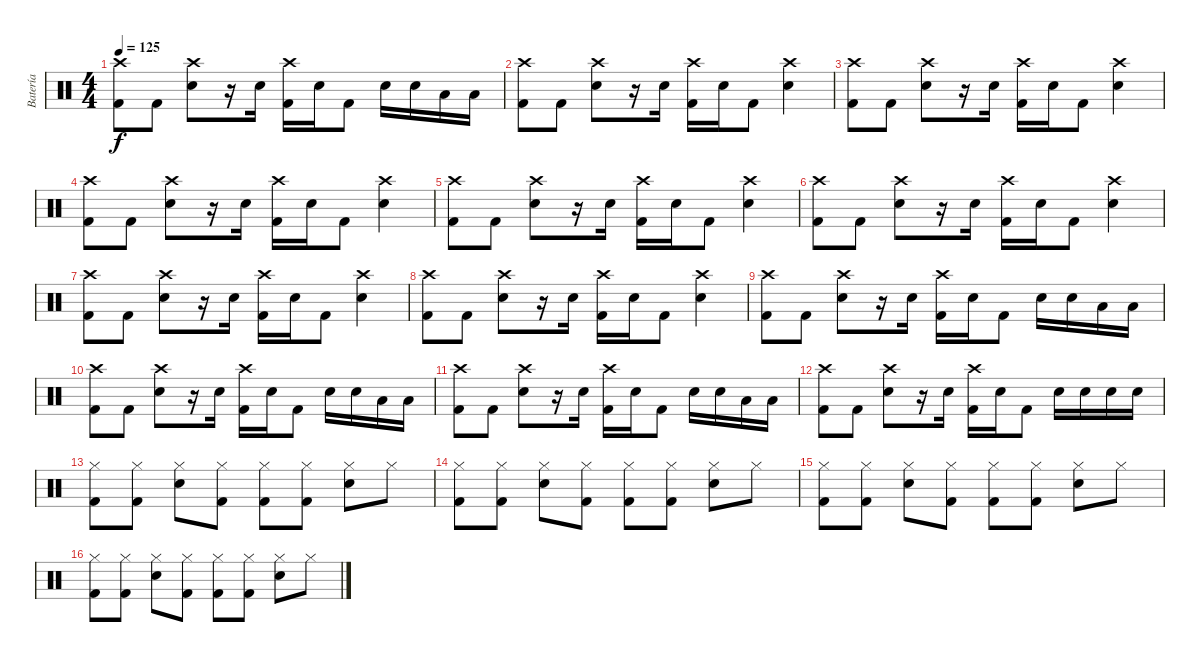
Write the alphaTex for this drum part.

\track ("Batería" "Batería") {instrument percussion}
\staff {score}
\articulation defaults
\ts (4 4)
\tempo 125
\clef neutral
\ks c
("Crash high (hit)" "Kick (hit) 2").8{dy f} "Kick (hit) 2".8 ("Crash high (hit)" "Snare (hit) 2").8 r.16 "Snare (hit) 2".16 ("Crash high (hit)" "Kick (hit) 2").16 "Snare (hit) 2".16 "Kick (hit) 2".8 "Snare (hit) 2".16 "Snare (hit) 2".16 "Low Tom (hit)".16 "Low Tom (hit)".16 |
("Crash high (hit)" "Kick (hit) 2").8 "Kick (hit) 2".8 ("Crash high (hit)" "Snare (hit) 2").8 r.16 "Snare (hit) 2".16 ("Crash high (hit)" "Kick (hit) 2").16 "Snare (hit) 2".16 "Kick (hit) 2".8 ("Crash high (hit)" "Snare (hit) 2").4 |
("Crash high (hit)" "Kick (hit) 2").8 "Kick (hit) 2".8 ("Crash high (hit)" "Snare (hit) 2").8 r.16 "Snare (hit) 2".16 ("Crash high (hit)" "Kick (hit) 2").16 "Snare (hit) 2".16 "Kick (hit) 2".8 ("Crash high (hit)" "Snare (hit) 2").4 |
("Crash high (hit)" "Kick (hit) 2").8 "Kick (hit) 2".8 ("Crash high (hit)" "Snare (hit) 2").8 r.16 "Snare (hit) 2".16 ("Crash high (hit)" "Kick (hit) 2").16 "Snare (hit) 2".16 "Kick (hit) 2".8 ("Crash high (hit)" "Snare (hit) 2").4 |
("Crash high (hit)" "Kick (hit) 2").8 "Kick (hit) 2".8 ("Crash high (hit)" "Snare (hit) 2").8 r.16 "Snare (hit) 2".16 ("Crash high (hit)" "Kick (hit) 2").16 "Snare (hit) 2".16 "Kick (hit) 2".8 ("Crash high (hit)" "Snare (hit) 2").4 |
("Crash high (hit)" "Kick (hit) 2").8 "Kick (hit) 2".8 ("Crash high (hit)" "Snare (hit) 2").8 r.16 "Snare (hit) 2".16 ("Crash high (hit)" "Kick (hit) 2").16 "Snare (hit) 2".16 "Kick (hit) 2".8 ("Crash high (hit)" "Snare (hit) 2").4 |
("Crash high (hit)" "Kick (hit) 2").8 "Kick (hit) 2".8 ("Crash high (hit)" "Snare (hit) 2").8 r.16 "Snare (hit) 2".16 ("Crash high (hit)" "Kick (hit) 2").16 "Snare (hit) 2".16 "Kick (hit) 2".8 ("Crash high (hit)" "Snare (hit) 2").4 |
("Crash high (hit)" "Kick (hit) 2").8 "Kick (hit) 2".8 ("Crash high (hit)" "Snare (hit) 2").8 r.16 "Snare (hit) 2".16 ("Crash high (hit)" "Kick (hit) 2").16 "Snare (hit) 2".16 "Kick (hit) 2".8 ("Crash high (hit)" "Snare (hit) 2").4 |
("Crash high (hit)" "Kick (hit) 2").8 "Kick (hit) 2".8 ("Crash high (hit)" "Snare (hit) 2").8 r.16 "Snare (hit) 2".16 ("Crash high (hit)" "Kick (hit) 2").16 "Snare (hit) 2".16 "Kick (hit) 2".8 "Snare (hit) 2".16 "Snare (hit) 2".16 "Low Tom (hit)".16 "Low Tom (hit)".16 |
("Crash high (hit)" "Kick (hit) 2").8 "Kick (hit) 2".8 ("Crash high (hit)" "Snare (hit) 2").8 r.16 "Snare (hit) 2".16 ("Crash high (hit)" "Kick (hit) 2").16 "Snare (hit) 2".16 "Kick (hit) 2".8 "Snare (hit) 2".16 "Snare (hit) 2".16 "Low Tom (hit)".16 "Low Tom (hit)".16 |
("Crash high (hit)" "Kick (hit) 2").8 "Kick (hit) 2".8 ("Crash high (hit)" "Snare (hit) 2").8 r.16 "Snare (hit) 2".16 ("Crash high (hit)" "Kick (hit) 2").16 "Snare (hit) 2".16 "Kick (hit) 2".8 "Snare (hit) 2".16 "Snare (hit) 2".16 "Low Tom (hit)".16 "Low Tom (hit)".16 |
("Crash high (hit)" "Kick (hit) 2").8 "Kick (hit) 2".8 ("Crash high (hit)" "Snare (hit) 2").8 r.16 "Snare (hit) 2".16 ("Crash high (hit)" "Kick (hit) 2").16 "Snare (hit) 2".16 "Kick (hit) 2".8 "Snare (hit) 2".16 "Snare (hit) 2".16 "Snare (hit) 2".16 "Snare (hit) 2".16 |
("Hi-Hat (closed)" "Kick (hit) 2").8 ("Hi-Hat (closed)" "Kick (hit) 2").8 ("Hi-Hat (closed)" "Snare (hit) 2").8 ("Hi-Hat (closed)" "Kick (hit) 2").8 ("Hi-Hat (closed)" "Kick (hit) 2").8 ("Hi-Hat (closed)" "Kick (hit) 2").8 ("Hi-Hat (closed)" "Snare (hit) 2").8 "Hi-Hat (closed)".8 |
("Hi-Hat (closed)" "Kick (hit) 2").8 ("Hi-Hat (closed)" "Kick (hit) 2").8 ("Hi-Hat (closed)" "Snare (hit) 2").8 ("Hi-Hat (closed)" "Kick (hit) 2").8 ("Hi-Hat (closed)" "Kick (hit) 2").8 ("Hi-Hat (closed)" "Kick (hit) 2").8 ("Hi-Hat (closed)" "Snare (hit) 2").8 "Hi-Hat (closed)".8 |
("Hi-Hat (closed)" "Kick (hit) 2").8 ("Hi-Hat (closed)" "Kick (hit) 2").8 ("Hi-Hat (closed)" "Snare (hit) 2").8 ("Hi-Hat (closed)" "Kick (hit) 2").8 ("Hi-Hat (closed)" "Kick (hit) 2").8 ("Hi-Hat (closed)" "Kick (hit) 2").8 ("Hi-Hat (closed)" "Snare (hit) 2").8 "Hi-Hat (closed)".8 |
("Hi-Hat (closed)" "Kick (hit) 2").8 ("Hi-Hat (closed)" "Kick (hit) 2").8 ("Hi-Hat (closed)" "Snare (hit) 2").8 ("Hi-Hat (closed)" "Kick (hit) 2").8 ("Hi-Hat (closed)" "Kick (hit) 2").8 ("Hi-Hat (closed)" "Kick (hit) 2").8 ("Hi-Hat (closed)" "Snare (hit) 2").8 "Hi-Hat (closed)".8
